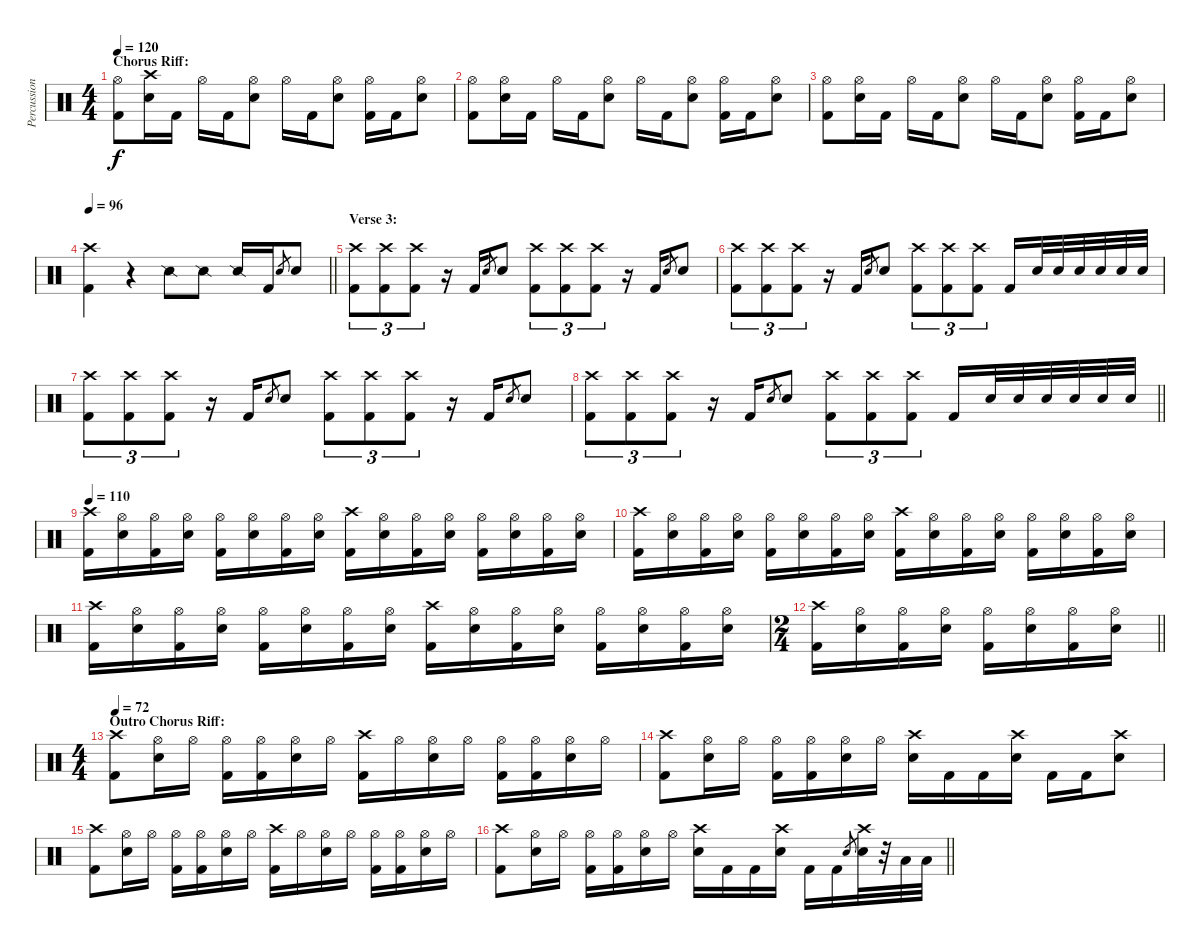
\track ("Percussion" "Percussion") {instrument percussion}
\staff {score}
\articulation defaults
\ts (4 4)
\section ("" "Chorus Riff:")
\tempo 120
\clef neutral
\ks c
("Hi-Hat (open)" "Kick (hit) 2").8{dy f} ("Crash high (hit)" "Electric Snare (hit)").16 "Kick (hit) 2".16 "Hi-Hat (open)".16 "Kick (hit) 2".16 ("Hi-Hat (open)" "Electric Snare (hit)").8 "Hi-Hat (open)".16 "Kick (hit) 2".16 ("Hi-Hat (open)" "Electric Snare (hit)").8 ("Hi-Hat (open)" "Kick (hit) 2").16 "Kick (hit) 2".16 ("Hi-Hat (open)" "Electric Snare (hit)").8 |
("Hi-Hat (open)" "Kick (hit) 2").8 ("Hi-Hat (open)" "Electric Snare (hit)").16 "Kick (hit) 2".16 "Hi-Hat (open)".16 "Kick (hit) 2".16 ("Hi-Hat (open)" "Electric Snare (hit)").8 "Hi-Hat (open)".16 "Kick (hit) 2".16 ("Hi-Hat (open)" "Electric Snare (hit)").8 ("Hi-Hat (open)" "Kick (hit) 2").16 "Kick (hit) 2".16 ("Hi-Hat (open)" "Electric Snare (hit)").8 |
("Hi-Hat (open)" "Kick (hit) 2").8 ("Hi-Hat (open)" "Electric Snare (hit)").16 "Kick (hit) 2".16 "Hi-Hat (open)".16 "Kick (hit) 2".16 ("Hi-Hat (open)" "Electric Snare (hit)").8 "Hi-Hat (open)".16 "Kick (hit) 2".16 ("Hi-Hat (open)" "Electric Snare (hit)").8 ("Hi-Hat (open)" "Kick (hit) 2").16 "Kick (hit) 2".16 ("Hi-Hat (open)" "Electric Snare (hit)").8 |
\tempo 96
\barLineRight lightlight
("Crash high (hit)" "Kick (hit) 2").4 r.4 "Snare (side stick) 2".8 "Snare (side stick) 2".8 "Snare (side stick) 2".16 "Kick (hit) 2".16 "Electric Snare (hit)".8{gr} "Electric Snare (hit)".8 |
\section ("" "Verse 3:")
("Crash high (hit)" "Kick (hit) 2").8{tu (3 2)} ("Crash high (hit)" "Kick (hit) 2").8{tu (3 2)} ("Crash high (hit)" "Kick (hit) 2").8{tu (3 2)} r.16 "Kick (hit) 2".16 "Electric Snare (hit)".8{gr} "Electric Snare (hit)".8 ("Crash high (hit)" "Kick (hit) 2").8{tu (3 2)} ("Crash high (hit)" "Kick (hit) 2").8{tu (3 2)} ("Crash high (hit)" "Kick (hit) 2").8{tu (3 2)} r.16 "Kick (hit) 2".16 "Electric Snare (hit)".8{gr} "Electric Snare (hit)".8 |
("Crash high (hit)" "Kick (hit) 2").8{tu (3 2)} ("Crash high (hit)" "Kick (hit) 2").8{tu (3 2)} ("Crash high (hit)" "Kick (hit) 2").8{tu (3 2)} r.16 "Kick (hit) 2".16 "Electric Snare (hit)".8{gr} "Electric Snare (hit)".8 ("Crash high (hit)" "Kick (hit) 2").8{tu (3 2)} ("Crash high (hit)" "Kick (hit) 2").8{tu (3 2)} ("Crash high (hit)" "Kick (hit) 2").8{tu (3 2)} "Kick (hit) 2".16 "Electric Snare (hit)".32 "Electric Snare (hit)".32 "Electric Snare (hit)".32 "Electric Snare (hit)".32 "Electric Snare (hit)".32 "Electric Snare (hit)".32 |
("Crash high (hit)" "Kick (hit) 2").8{tu (3 2)} ("Crash high (hit)" "Kick (hit) 2").8{tu (3 2)} ("Crash high (hit)" "Kick (hit) 2").8{tu (3 2)} r.16 "Kick (hit) 2".16 "Electric Snare (hit)".8{gr} "Electric Snare (hit)".8 ("Crash high (hit)" "Kick (hit) 2").8{tu (3 2)} ("Crash high (hit)" "Kick (hit) 2").8{tu (3 2)} ("Crash high (hit)" "Kick (hit) 2").8{tu (3 2)} r.16 "Kick (hit) 2".16 "Electric Snare (hit)".8{gr} "Electric Snare (hit)".8 |
\barLineRight lightlight
("Crash high (hit)" "Kick (hit) 2").8{tu (3 2)} ("Crash high (hit)" "Kick (hit) 2").8{tu (3 2)} ("Crash high (hit)" "Kick (hit) 2").8{tu (3 2)} r.16 "Kick (hit) 2".16 "Electric Snare (hit)".8{gr} "Electric Snare (hit)".8 ("Crash high (hit)" "Kick (hit) 2").8{tu (3 2)} ("Crash high (hit)" "Kick (hit) 2").8{tu (3 2)} ("Crash high (hit)" "Kick (hit) 2").8{tu (3 2)} "Kick (hit) 2".16 "Electric Snare (hit)".32 "Electric Snare (hit)".32 "Electric Snare (hit)".32 "Electric Snare (hit)".32 "Electric Snare (hit)".32 "Electric Snare (hit)".32 |
\tempo 110
("Crash high (hit)" "Kick (hit) 2").16 ("Hi-Hat (open)" "Electric Snare (hit)").16 ("Hi-Hat (open)" "Kick (hit) 2").16 ("Hi-Hat (open)" "Electric Snare (hit)").16 ("Hi-Hat (open)" "Kick (hit) 2").16 ("Hi-Hat (open)" "Electric Snare (hit)").16 ("Hi-Hat (open)" "Kick (hit) 2").16 ("Hi-Hat (open)" "Electric Snare (hit)").16 ("Crash high (hit)" "Kick (hit) 2").16 ("Hi-Hat (open)" "Electric Snare (hit)").16 ("Hi-Hat (open)" "Kick (hit) 2").16 ("Hi-Hat (open)" "Electric Snare (hit)").16 ("Hi-Hat (open)" "Kick (hit) 2").16 ("Hi-Hat (open)" "Electric Snare (hit)").16 ("Hi-Hat (open)" "Kick (hit) 2").16 ("Hi-Hat (open)" "Electric Snare (hit)").16 |
("Crash high (hit)" "Kick (hit) 2").16 ("Hi-Hat (open)" "Electric Snare (hit)").16 ("Hi-Hat (open)" "Kick (hit) 2").16 ("Hi-Hat (open)" "Electric Snare (hit)").16 ("Hi-Hat (open)" "Kick (hit) 2").16 ("Hi-Hat (open)" "Electric Snare (hit)").16 ("Hi-Hat (open)" "Kick (hit) 2").16 ("Hi-Hat (open)" "Electric Snare (hit)").16 ("Crash high (hit)" "Kick (hit) 2").16 ("Hi-Hat (open)" "Electric Snare (hit)").16 ("Hi-Hat (open)" "Kick (hit) 2").16 ("Hi-Hat (open)" "Electric Snare (hit)").16 ("Hi-Hat (open)" "Kick (hit) 2").16 ("Hi-Hat (open)" "Electric Snare (hit)").16 ("Hi-Hat (open)" "Kick (hit) 2").16 ("Hi-Hat (open)" "Electric Snare (hit)").16 |
("Crash high (hit)" "Kick (hit) 2").16 ("Hi-Hat (open)" "Electric Snare (hit)").16 ("Hi-Hat (open)" "Kick (hit) 2").16 ("Hi-Hat (open)" "Electric Snare (hit)").16 ("Hi-Hat (open)" "Kick (hit) 2").16 ("Hi-Hat (open)" "Electric Snare (hit)").16 ("Hi-Hat (open)" "Kick (hit) 2").16 ("Hi-Hat (open)" "Electric Snare (hit)").16 ("Crash high (hit)" "Kick (hit) 2").16 ("Hi-Hat (open)" "Electric Snare (hit)").16 ("Hi-Hat (open)" "Kick (hit) 2").16 ("Hi-Hat (open)" "Electric Snare (hit)").16 ("Hi-Hat (open)" "Kick (hit) 2").16 ("Hi-Hat (open)" "Electric Snare (hit)").16 ("Hi-Hat (open)" "Kick (hit) 2").16 ("Hi-Hat (open)" "Electric Snare (hit)").16 |
\ts (2 4)
\barLineRight lightlight
("Crash high (hit)" "Kick (hit) 2").16 ("Hi-Hat (open)" "Electric Snare (hit)").16 ("Hi-Hat (open)" "Kick (hit) 2").16 ("Hi-Hat (open)" "Electric Snare (hit)").16 ("Hi-Hat (open)" "Kick (hit) 2").16 ("Hi-Hat (open)" "Electric Snare (hit)").16 ("Hi-Hat (open)" "Kick (hit) 2").16 ("Hi-Hat (open)" "Electric Snare (hit)").16 |
\ts (4 4)
\section ("" "Outro Chorus Riff:")
\tempo 72
("Crash high (hit)" "Kick (hit) 2").8 ("Hi-Hat (open)" "Electric Snare (hit)").16 "Hi-Hat (open)".16 ("Hi-Hat (open)" "Kick (hit) 2").16 ("Hi-Hat (open)" "Kick (hit) 2").16 ("Hi-Hat (open)" "Electric Snare (hit)").16 "Hi-Hat (open)".16 ("Crash high (hit)" "Kick (hit) 2").16 "Hi-Hat (open)".16 ("Hi-Hat (open)" "Electric Snare (hit)").16 "Hi-Hat (open)".16 ("Hi-Hat (open)" "Kick (hit) 2").16 ("Hi-Hat (open)" "Kick (hit) 2").16 ("Hi-Hat (open)" "Electric Snare (hit)").16 "Hi-Hat (open)".16 |
("Crash high (hit)" "Kick (hit) 2").8 ("Hi-Hat (open)" "Electric Snare (hit)").16 "Hi-Hat (open)".16 ("Hi-Hat (open)" "Kick (hit) 2").16 ("Hi-Hat (open)" "Kick (hit) 2").16 ("Hi-Hat (open)" "Electric Snare (hit)").16 "Hi-Hat (open)".16 ("Crash high (hit)" "Electric Snare (hit)").16 "Kick (hit) 2".16 "Kick (hit) 2".16 ("Crash high (hit)" "Electric Snare (hit)").16 "Kick (hit) 2".16 "Kick (hit) 2".16 ("Crash high (hit)" "Electric Snare (hit)").8 |
("Crash high (hit)" "Kick (hit) 2").8 ("Hi-Hat (open)" "Electric Snare (hit)").16 "Hi-Hat (open)".16 ("Hi-Hat (open)" "Kick (hit) 2").16 ("Hi-Hat (open)" "Kick (hit) 2").16 ("Hi-Hat (open)" "Electric Snare (hit)").16 "Hi-Hat (open)".16 ("Crash high (hit)" "Kick (hit) 2").16 "Hi-Hat (open)".16 ("Hi-Hat (open)" "Electric Snare (hit)").16 "Hi-Hat (open)".16 ("Hi-Hat (open)" "Kick (hit) 2").16 ("Hi-Hat (open)" "Kick (hit) 2").16 ("Hi-Hat (open)" "Electric Snare (hit)").16 "Hi-Hat (open)".16 |
\barLineRight lightlight
("Crash high (hit)" "Kick (hit) 2").8 ("Hi-Hat (open)" "Electric Snare (hit)").16 "Hi-Hat (open)".16 ("Hi-Hat (open)" "Kick (hit) 2").16 ("Hi-Hat (open)" "Kick (hit) 2").16 ("Hi-Hat (open)" "Electric Snare (hit)").16 "Hi-Hat (open)".16 ("Crash high (hit)" "Electric Snare (hit)").16 "Kick (hit) 2".16 "Kick (hit) 2".16 ("Crash high (hit)" "Electric Snare (hit)").16 "Kick (hit) 2".16 "Kick (hit) 2".16 "Electric Snare (hit)".8{gr} ("Crash high (hit)" "Electric Snare (hit)").32 r.32 "Low Tom (hit)".32 "Low Tom (hit)".32
